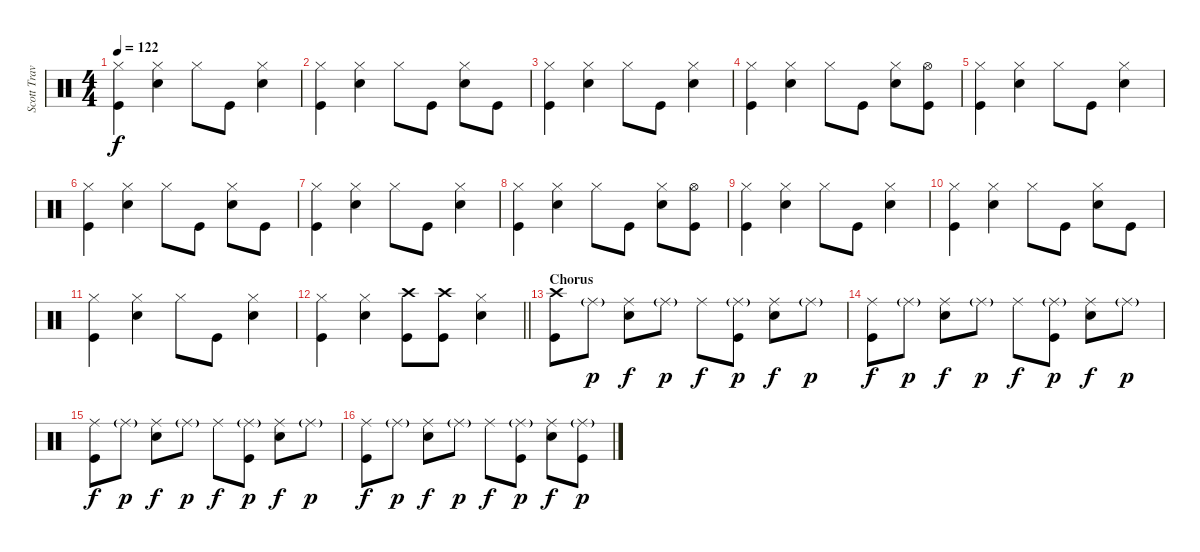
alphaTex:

\track ("Scott Travis" "Scott Trav") {instrument percussion}
\staff {score}
\articulation defaults
\ts (4 4)
\tempo 122
\clef neutral
\ks c
("Hi-Hat (closed)" "Kick (hit)").4{dy f} ("Hi-Hat (closed)" "Snare (hit) 2").4 "Hi-Hat (closed)".8 "Kick (hit)".8 ("Hi-Hat (closed)" "Snare (hit) 2").4 |
("Hi-Hat (closed)" "Kick (hit)").4 ("Hi-Hat (closed)" "Snare (hit) 2").4 "Hi-Hat (closed)".8 "Kick (hit)".8 ("Hi-Hat (closed)" "Snare (hit) 2").8 "Kick (hit)".8 |
("Hi-Hat (closed)" "Kick (hit)").4 ("Hi-Hat (closed)" "Snare (hit) 2").4 "Hi-Hat (closed)".8 "Kick (hit)".8 ("Hi-Hat (closed)" "Snare (hit) 2").4 |
("Hi-Hat (closed)" "Kick (hit)").4 ("Hi-Hat (closed)" "Snare (hit) 2").4 "Hi-Hat (closed)".8 "Kick (hit)".8 ("Hi-Hat (closed)" "Snare (hit) 2").8 ("Hi-Hat (open)" "Kick (hit)").8 |
("Hi-Hat (closed)" "Kick (hit)").4 ("Hi-Hat (closed)" "Snare (hit) 2").4 "Hi-Hat (closed)".8 "Kick (hit)".8 ("Hi-Hat (closed)" "Snare (hit) 2").4 |
("Hi-Hat (closed)" "Kick (hit)").4 ("Hi-Hat (closed)" "Snare (hit) 2").4 "Hi-Hat (closed)".8 "Kick (hit)".8 ("Hi-Hat (closed)" "Snare (hit) 2").8 "Kick (hit)".8 |
("Hi-Hat (closed)" "Kick (hit)").4 ("Hi-Hat (closed)" "Snare (hit) 2").4 "Hi-Hat (closed)".8 "Kick (hit)".8 ("Hi-Hat (closed)" "Snare (hit) 2").4 |
("Hi-Hat (closed)" "Kick (hit)").4 ("Hi-Hat (closed)" "Snare (hit) 2").4 "Hi-Hat (closed)".8 "Kick (hit)".8 ("Hi-Hat (closed)" "Snare (hit) 2").8 ("Hi-Hat (open)" "Kick (hit)").8 |
("Hi-Hat (closed)" "Kick (hit)").4 ("Hi-Hat (closed)" "Snare (hit) 2").4 "Hi-Hat (closed)".8 "Kick (hit)".8 ("Hi-Hat (closed)" "Snare (hit) 2").4 |
("Hi-Hat (closed)" "Kick (hit)").4 ("Hi-Hat (closed)" "Snare (hit) 2").4 "Hi-Hat (closed)".8 "Kick (hit)".8 ("Hi-Hat (closed)" "Snare (hit) 2").8 "Kick (hit)".8 |
("Hi-Hat (closed)" "Kick (hit)").4 ("Hi-Hat (closed)" "Snare (hit) 2").4 "Hi-Hat (closed)".8 "Kick (hit)".8 ("Hi-Hat (closed)" "Snare (hit) 2").4 |
\barLineRight lightlight
("Hi-Hat (closed)" "Kick (hit)").4 ("Hi-Hat (closed)" "Snare (hit) 2").4 ("Crash high (hit)" "Kick (hit)").8 ("Crash high (hit)" "Kick (hit)").8 ("Hi-Hat (closed)" "Snare (hit) 2").4 |
\section ("" "Chorus")
("Crash high (hit)" "Kick (hit)").8 "Ride (middle)"{g}.8{dy p} ("Ride (middle)" "Snare (hit) 2").8{dy f} "Ride (middle)"{g}.8{dy p} "Ride (middle)".8{dy f} ("Ride (middle)"{g} "Kick (hit)").8{dy p} ("Ride (middle)" "Snare (hit) 2").8{dy f} "Ride (middle)"{g}.8{dy p} |
("Ride (middle)" "Kick (hit)").8{dy f} "Ride (middle)"{g}.8{dy p} ("Ride (middle)" "Snare (hit) 2").8{dy f} "Ride (middle)"{g}.8{dy p} "Ride (middle)".8{dy f} ("Ride (middle)"{g} "Kick (hit)").8{dy p} ("Ride (middle)" "Snare (hit) 2").8{dy f} "Ride (middle)"{g}.8{dy p} |
("Ride (middle)" "Kick (hit)").8{dy f} "Ride (middle)"{g}.8{dy p} ("Ride (middle)" "Snare (hit) 2").8{dy f} "Ride (middle)"{g}.8{dy p} "Ride (middle)".8{dy f} ("Ride (middle)"{g} "Kick (hit)").8{dy p} ("Ride (middle)" "Snare (hit) 2").8{dy f} "Ride (middle)"{g}.8{dy p} |
("Ride (middle)" "Kick (hit)").8{dy f} "Ride (middle)"{g}.8{dy p} ("Ride (middle)" "Snare (hit) 2").8{dy f} "Ride (middle)"{g}.8{dy p} "Ride (middle)".8{dy f} ("Ride (middle)"{g} "Kick (hit)").8{dy p} ("Ride (middle)" "Snare (hit) 2").8{dy f} ("Ride (middle)"{g} "Kick (hit)").8{dy p}
